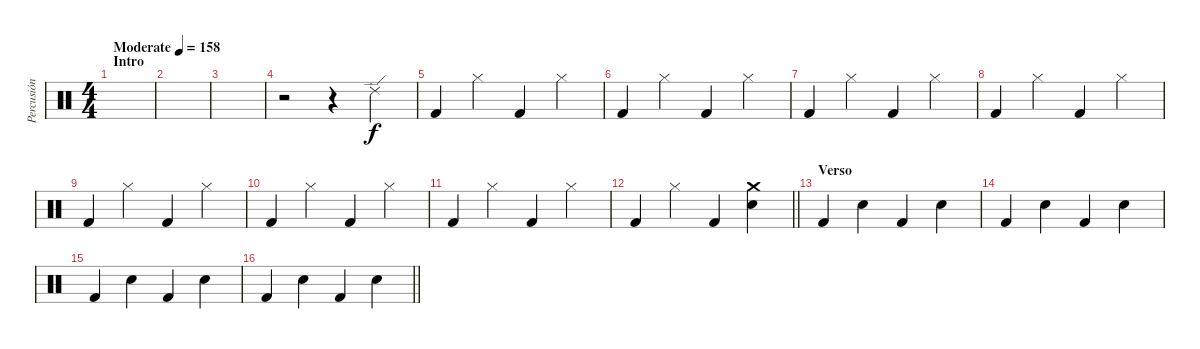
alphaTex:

\track ("Percusión" "Percusión") {instrument percussion}
\staff {score}
\articulation defaults
\ts (4 4)
\section ("" "Intro")
\tempo (158 "Moderate")
\clef neutral
\ks c
|
|
|
r.2 r.4 "Ride (edge) 2".4 |
"Kick (hit) 2".4 "Hi-Hat (closed)".4 "Kick (hit) 2".4 "Hi-Hat (closed)".4 |
"Kick (hit) 2".4 "Hi-Hat (closed)".4 "Kick (hit) 2".4 "Hi-Hat (closed)".4 |
"Kick (hit) 2".4 "Hi-Hat (closed)".4 "Kick (hit) 2".4 "Hi-Hat (closed)".4 |
"Kick (hit) 2".4 "Hi-Hat (closed)".4 "Kick (hit) 2".4 "Hi-Hat (closed)".4 |
"Kick (hit) 2".4 "Hi-Hat (closed)".4 "Kick (hit) 2".4 "Hi-Hat (closed)".4 |
"Kick (hit) 2".4 "Hi-Hat (closed)".4 "Kick (hit) 2".4 "Hi-Hat (closed)".4 |
"Kick (hit) 2".4 "Hi-Hat (closed)".4 "Kick (hit) 2".4 "Hi-Hat (closed)".4 |
\barLineRight lightlight "Kick (hit) 2".4 "Hi-Hat (closed)".4 "Kick (hit) 2".4
("Crash medium (hit)" "Electric Snare (hit)").4 |
\section ("" "Verso")
"Kick (hit) 2".4{volume 16} "Electric Snare (hit)".4 "Kick (hit) 2".4 "Electric Snare (hit)".4 |
"Kick (hit) 2".4 "Electric Snare (hit)".4 "Kick (hit) 2".4 "Electric Snare (hit)".4 |
"Kick (hit) 2".4{volume 16} "Electric Snare (hit)".4 "Kick (hit) 2".4 "Electric Snare (hit)".4 |
\barLineRight lightlight "Kick (hit) 2".4 "Electric Snare (hit)".4 "Kick (hit) 2".4 "Electric Snare (hit)".4
